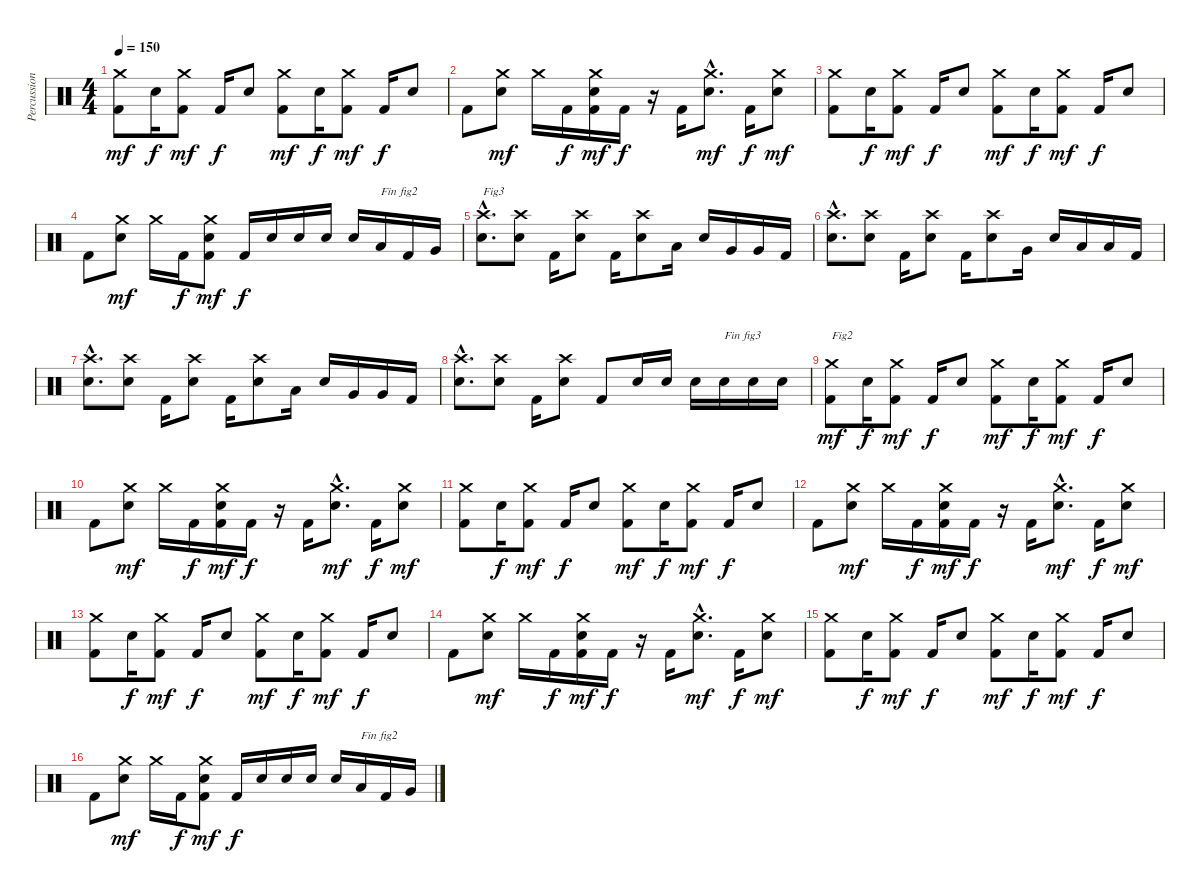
\track ("Percussions" "Percussion") {instrument percussion}
\staff {score}
\articulation defaults
\ts (4 4)
\tempo 150
\clef neutral
\ks c
("Kick (hit) 2" "Crash medium (hit)").8{dy mf} "Electric Snare (hit)".16{dy f} ("Kick (hit) 2" "Crash medium (hit)").8{dy mf} "Kick (hit) 2".16{dy f} "Electric Snare (hit)".8 ("Kick (hit) 2" "Crash medium (hit)").8{dy mf} "Electric Snare (hit)".16{dy f} ("Kick (hit) 2" "Crash medium (hit)").8{dy mf} "Kick (hit) 2".16{dy f} "Electric Snare (hit)".8 |
"Kick (hit) 2".8 ("Electric Snare (hit)" "Crash medium (hit)").8{dy mf} "Crash medium (hit)".16 "Kick (hit) 2".16{dy f} ("Kick (hit) 2" "Electric Snare (hit)" "Crash medium (hit)").16{dy mf} "Kick (hit) 2".16{dy f} r.16 "Kick (hit) 2".16 ("Electric Snare (hit)"{hac} "Crash medium (hit)"{hac}).8{d dy mf} "Kick (hit) 2".16{dy f} ("Electric Snare (hit)" "Crash medium (hit)").8{dy mf} |
("Kick (hit) 2" "Crash medium (hit)").8 "Electric Snare (hit)".16{dy f} ("Kick (hit) 2" "Crash medium (hit)").8{dy mf} "Kick (hit) 2".16{dy f} "Electric Snare (hit)".8 ("Kick (hit) 2" "Crash medium (hit)").8{dy mf} "Electric Snare (hit)".16{dy f} ("Kick (hit) 2" "Crash medium (hit)").8{dy mf} "Kick (hit) 2".16{dy f} "Electric Snare (hit)".8 |
"Kick (hit) 2".8 ("Electric Snare (hit)" "Crash medium (hit)").8{dy mf} "Crash medium (hit)".16 "Kick (hit) 2".16{dy f} ("Kick (hit) 2" "Electric Snare (hit)" "Crash medium (hit)").8{dy mf} "Kick (hit) 2".16{dy f} "Electric Snare (hit)".16 "Electric Snare (hit)".16 "Electric Snare (hit)".16 "Electric Snare (hit)".16 "Low Tom (hit)".16{txt "Fin fig2"} "Kick (hit) 2".16 "Very Low Tom (hit)".16 |
("Electric Snare (hit)"{hac} "Crash high (hit)"{hac}).8{d txt "Fig3"} ("Electric Snare (hit)" "Crash high (hit)").8 "Kick (hit) 2".16 ("Electric Snare (hit)" "Crash high (hit)").8 "Kick (hit) 2".16 ("Electric Snare (hit)" "Crash high (hit)").8 "Low Tom (hit)".16 "Electric Snare (hit)".16 "Very Low Tom (hit)".16 "Very Low Tom (hit)".16 "Kick (hit) 2".16 |
("Electric Snare (hit)"{hac} "Crash high (hit)"{hac}).8{d} ("Electric Snare (hit)" "Crash high (hit)").8 "Kick (hit) 2".16 ("Electric Snare (hit)" "Crash high (hit)").8 "Kick (hit) 2".16 ("Electric Snare (hit)" "Crash high (hit)").8 "Very Low Tom (hit)".16 "Electric Snare (hit)".16 "Low Tom (hit)".16 "Low Tom (hit)".16 "Kick (hit) 2".16 |
("Electric Snare (hit)"{hac} "Crash high (hit)"{hac}).8{d} ("Electric Snare (hit)" "Crash high (hit)").8 "Kick (hit) 2".16 ("Electric Snare (hit)" "Crash high (hit)").8 "Kick (hit) 2".16 ("Electric Snare (hit)" "Crash high (hit)").8 "Low Tom (hit)".16 "Electric Snare (hit)".16 "Very Low Tom (hit)".16 "Very Low Tom (hit)".16 "Kick (hit) 2".16 |
("Electric Snare (hit)"{hac} "Crash high (hit)"{hac}).8{d} ("Electric Snare (hit)" "Crash high (hit)").8 "Kick (hit) 2".16 ("Electric Snare (hit)" "Crash high (hit)").8 "Kick (hit) 2".8 "Electric Snare (hit)".16 "Electric Snare (hit)".16 "Electric Snare (hit)".16 "Electric Snare (hit)".16{txt "Fin fig3"} "Electric Snare (hit)".16 "Electric Snare (hit)".16 |
("Kick (hit) 2" "Crash medium (hit)").8{txt "Fig2" dy mf} "Electric Snare (hit)".16{dy f} ("Kick (hit) 2" "Crash medium (hit)").8{dy mf} "Kick (hit) 2".16{dy f} "Electric Snare (hit)".8 ("Kick (hit) 2" "Crash medium (hit)").8{dy mf} "Electric Snare (hit)".16{dy f} ("Kick (hit) 2" "Crash medium (hit)").8{dy mf} "Kick (hit) 2".16{dy f} "Electric Snare (hit)".8 |
"Kick (hit) 2".8 ("Electric Snare (hit)" "Crash medium (hit)").8{dy mf} "Crash medium (hit)".16 "Kick (hit) 2".16{dy f} ("Kick (hit) 2" "Electric Snare (hit)" "Crash medium (hit)").16{dy mf} "Kick (hit) 2".16{dy f} r.16 "Kick (hit) 2".16 ("Electric Snare (hit)"{hac} "Crash medium (hit)"{hac}).8{d dy mf} "Kick (hit) 2".16{dy f} ("Electric Snare (hit)" "Crash medium (hit)").8{dy mf} |
("Kick (hit) 2" "Crash medium (hit)").8 "Electric Snare (hit)".16{dy f} ("Kick (hit) 2" "Crash medium (hit)").8{dy mf} "Kick (hit) 2".16{dy f} "Electric Snare (hit)".8 ("Kick (hit) 2" "Crash medium (hit)").8{dy mf} "Electric Snare (hit)".16{dy f} ("Kick (hit) 2" "Crash medium (hit)").8{dy mf} "Kick (hit) 2".16{dy f} "Electric Snare (hit)".8 |
"Kick (hit) 2".8 ("Electric Snare (hit)" "Crash medium (hit)").8{dy mf} "Crash medium (hit)".16 "Kick (hit) 2".16{dy f} ("Kick (hit) 2" "Electric Snare (hit)" "Crash medium (hit)").16{dy mf} "Kick (hit) 2".16{dy f} r.16 "Kick (hit) 2".16 ("Electric Snare (hit)"{hac} "Crash medium (hit)"{hac}).8{d dy mf} "Kick (hit) 2".16{dy f} ("Electric Snare (hit)" "Crash medium (hit)").8{dy mf} |
("Kick (hit) 2" "Crash medium (hit)").8 "Electric Snare (hit)".16{dy f} ("Kick (hit) 2" "Crash medium (hit)").8{dy mf} "Kick (hit) 2".16{dy f} "Electric Snare (hit)".8 ("Kick (hit) 2" "Crash medium (hit)").8{dy mf} "Electric Snare (hit)".16{dy f} ("Kick (hit) 2" "Crash medium (hit)").8{dy mf} "Kick (hit) 2".16{dy f} "Electric Snare (hit)".8 |
"Kick (hit) 2".8 ("Electric Snare (hit)" "Crash medium (hit)").8{dy mf} "Crash medium (hit)".16 "Kick (hit) 2".16{dy f} ("Kick (hit) 2" "Electric Snare (hit)" "Crash medium (hit)").16{dy mf} "Kick (hit) 2".16{dy f} r.16 "Kick (hit) 2".16 ("Electric Snare (hit)"{hac} "Crash medium (hit)"{hac}).8{d dy mf} "Kick (hit) 2".16{dy f} ("Electric Snare (hit)" "Crash medium (hit)").8{dy mf} |
("Kick (hit) 2" "Crash medium (hit)").8 "Electric Snare (hit)".16{dy f} ("Kick (hit) 2" "Crash medium (hit)").8{dy mf} "Kick (hit) 2".16{dy f} "Electric Snare (hit)".8 ("Kick (hit) 2" "Crash medium (hit)").8{dy mf} "Electric Snare (hit)".16{dy f} ("Kick (hit) 2" "Crash medium (hit)").8{dy mf} "Kick (hit) 2".16{dy f} "Electric Snare (hit)".8 |
"Kick (hit) 2".8 ("Electric Snare (hit)" "Crash medium (hit)").8{dy mf} "Crash medium (hit)".16 "Kick (hit) 2".16{dy f} ("Kick (hit) 2" "Electric Snare (hit)" "Crash medium (hit)").8{dy mf} "Kick (hit) 2".16{dy f} "Electric Snare (hit)".16 "Electric Snare (hit)".16 "Electric Snare (hit)".16 "Electric Snare (hit)".16 "Low Tom (hit)".16{txt "Fin fig2"} "Kick (hit) 2".16 "Very Low Tom (hit)".16
